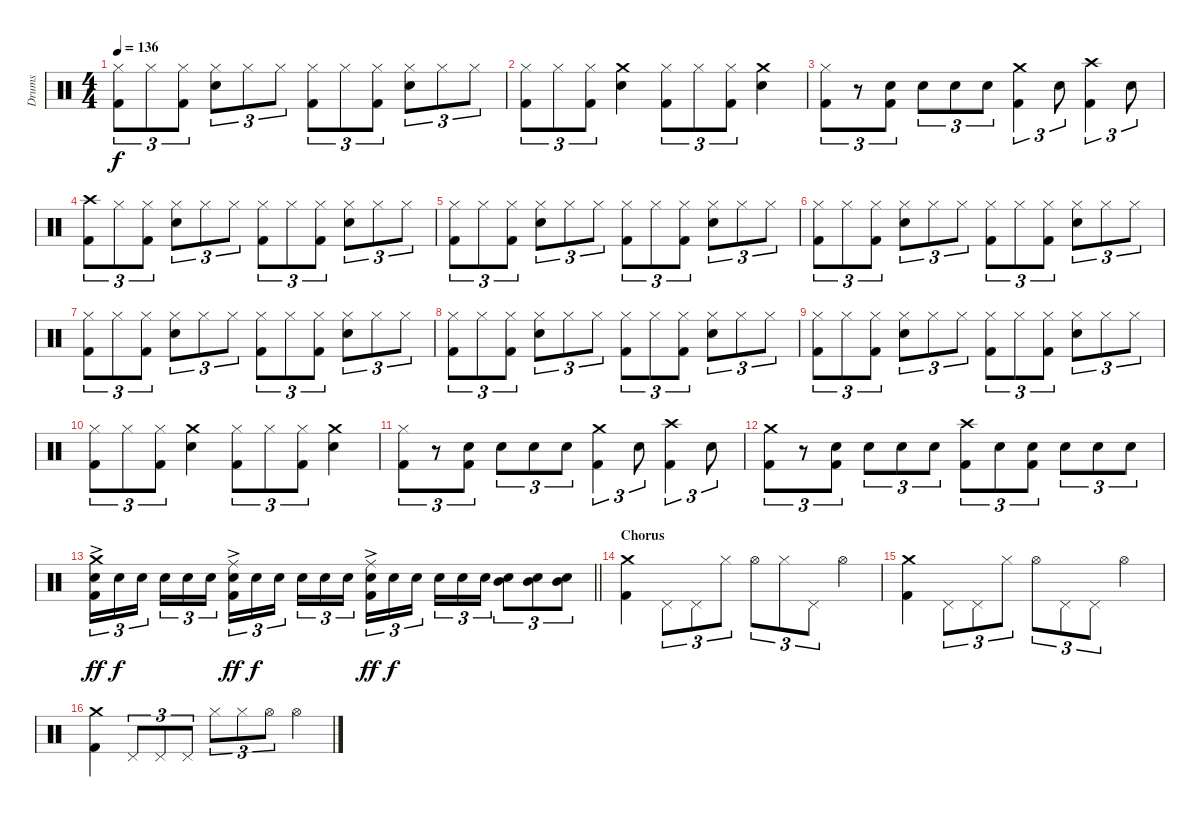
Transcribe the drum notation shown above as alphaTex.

\track ("Drums" "Drums") {instrument percussion}
\staff {score}
\articulation defaults
\ts (4 4)
\tempo 136
\clef neutral
\ks c
("Hi-Hat (closed)" "Kick (hit) 2").8{tu (3 2) dy f} "Hi-Hat (closed)".8{tu (3 2)} ("Hi-Hat (closed)" "Kick (hit) 2").8{tu (3 2)} ("Hi-Hat (closed)" "Snare (hit) 2").8{tu (3 2)} "Hi-Hat (closed)".8{tu (3 2)} "Hi-Hat (closed)".8{tu (3 2)} ("Hi-Hat (closed)" "Kick (hit) 2").8{tu (3 2)} "Hi-Hat (closed)".8{tu (3 2)} ("Hi-Hat (closed)" "Kick (hit) 2").8{tu (3 2)} ("Hi-Hat (closed)" "Snare (hit) 2").8{tu (3 2)} "Hi-Hat (closed)".8{tu (3 2)} "Hi-Hat (closed)".8{tu (3 2)} |
("Hi-Hat (closed)" "Kick (hit) 2").8{tu (3 2)} "Hi-Hat (closed)".8{tu (3 2)} ("Hi-Hat (closed)" "Kick (hit) 2").8{tu (3 2)} ("Crash medium (hit)" "Snare (hit) 2").4 ("Hi-Hat (closed)" "Kick (hit) 2").8{tu (3 2)} "Hi-Hat (closed)".8{tu (3 2)} ("Hi-Hat (closed)" "Kick (hit) 2").8{tu (3 2)} ("Crash medium (hit)" "Snare (hit) 2").4 |
("Hi-Hat (closed)" "Kick (hit) 2").8{tu (3 2)} r.8{tu (3 2)} ("Snare (hit) 2" "Kick (hit) 2").8{tu (3 2)} "Snare (hit) 2".8{tu (3 2)} "Snare (hit) 2".8{tu (3 2)} "Snare (hit) 2".8{tu (3 2)} ("Crash medium (hit)" "Kick (hit) 2").4{tu (3 2)} "Snare (hit) 2".8{tu (3 2)} ("Crash high (hit)" "Kick (hit) 2").4{tu (3 2)} "Snare (hit) 2".8{tu (3 2)} |
("Crash high (hit)" "Kick (hit) 2").8{tu (3 2)} "Hi-Hat (closed)".8{tu (3 2)} ("Hi-Hat (closed)" "Kick (hit) 2").8{tu (3 2)} ("Hi-Hat (closed)" "Snare (hit) 2").8{tu (3 2)} "Hi-Hat (closed)".8{tu (3 2)} "Hi-Hat (closed)".8{tu (3 2)} ("Hi-Hat (closed)" "Kick (hit) 2").8{tu (3 2)} "Hi-Hat (closed)".8{tu (3 2)} ("Hi-Hat (closed)" "Kick (hit) 2").8{tu (3 2)} ("Hi-Hat (closed)" "Snare (hit) 2").8{tu (3 2)} "Hi-Hat (closed)".8{tu (3 2)} "Hi-Hat (closed)".8{tu (3 2)} |
("Hi-Hat (closed)" "Kick (hit) 2").8{tu (3 2)} "Hi-Hat (closed)".8{tu (3 2)} ("Hi-Hat (closed)" "Kick (hit) 2").8{tu (3 2)} ("Hi-Hat (closed)" "Snare (hit) 2").8{tu (3 2)} "Hi-Hat (closed)".8{tu (3 2)} "Hi-Hat (closed)".8{tu (3 2)} ("Hi-Hat (closed)" "Kick (hit) 2").8{tu (3 2)} "Hi-Hat (closed)".8{tu (3 2)} ("Hi-Hat (closed)" "Kick (hit) 2").8{tu (3 2)} ("Hi-Hat (closed)" "Snare (hit) 2").8{tu (3 2)} "Hi-Hat (closed)".8{tu (3 2)} "Hi-Hat (closed)".8{tu (3 2)} |
("Hi-Hat (closed)" "Kick (hit) 2").8{tu (3 2)} "Hi-Hat (closed)".8{tu (3 2)} ("Hi-Hat (closed)" "Kick (hit) 2").8{tu (3 2)} ("Hi-Hat (closed)" "Snare (hit) 2").8{tu (3 2)} "Hi-Hat (closed)".8{tu (3 2)} "Hi-Hat (closed)".8{tu (3 2)} ("Hi-Hat (closed)" "Kick (hit) 2").8{tu (3 2)} "Hi-Hat (closed)".8{tu (3 2)} ("Hi-Hat (closed)" "Kick (hit) 2").8{tu (3 2)} ("Hi-Hat (closed)" "Snare (hit) 2").8{tu (3 2)} "Hi-Hat (closed)".8{tu (3 2)} "Hi-Hat (closed)".8{tu (3 2)} |
("Hi-Hat (closed)" "Kick (hit) 2").8{tu (3 2)} "Hi-Hat (closed)".8{tu (3 2)} ("Hi-Hat (closed)" "Kick (hit) 2").8{tu (3 2)} ("Hi-Hat (closed)" "Snare (hit) 2").8{tu (3 2)} "Hi-Hat (closed)".8{tu (3 2)} "Hi-Hat (closed)".8{tu (3 2)} ("Hi-Hat (closed)" "Kick (hit) 2").8{tu (3 2)} "Hi-Hat (closed)".8{tu (3 2)} ("Hi-Hat (closed)" "Kick (hit) 2").8{tu (3 2)} ("Hi-Hat (closed)" "Snare (hit) 2").8{tu (3 2)} "Hi-Hat (closed)".8{tu (3 2)} "Hi-Hat (closed)".8{tu (3 2)} |
("Hi-Hat (closed)" "Kick (hit) 2").8{tu (3 2)} "Hi-Hat (closed)".8{tu (3 2)} ("Hi-Hat (closed)" "Kick (hit) 2").8{tu (3 2)} ("Hi-Hat (closed)" "Snare (hit) 2").8{tu (3 2)} "Hi-Hat (closed)".8{tu (3 2)} "Hi-Hat (closed)".8{tu (3 2)} ("Hi-Hat (closed)" "Kick (hit) 2").8{tu (3 2)} "Hi-Hat (closed)".8{tu (3 2)} ("Hi-Hat (closed)" "Kick (hit) 2").8{tu (3 2)} ("Hi-Hat (closed)" "Snare (hit) 2").8{tu (3 2)} "Hi-Hat (closed)".8{tu (3 2)} "Hi-Hat (closed)".8{tu (3 2)} |
("Hi-Hat (closed)" "Kick (hit) 2").8{tu (3 2)} "Hi-Hat (closed)".8{tu (3 2)} ("Hi-Hat (closed)" "Kick (hit) 2").8{tu (3 2)} ("Hi-Hat (closed)" "Snare (hit) 2").8{tu (3 2)} "Hi-Hat (closed)".8{tu (3 2)} "Hi-Hat (closed)".8{tu (3 2)} ("Hi-Hat (closed)" "Kick (hit) 2").8{tu (3 2)} "Hi-Hat (closed)".8{tu (3 2)} ("Hi-Hat (closed)" "Kick (hit) 2").8{tu (3 2)} ("Hi-Hat (closed)" "Snare (hit) 2").8{tu (3 2)} "Hi-Hat (closed)".8{tu (3 2)} "Hi-Hat (closed)".8{tu (3 2)} |
("Hi-Hat (closed)" "Kick (hit) 2").8{tu (3 2)} "Hi-Hat (closed)".8{tu (3 2)} ("Hi-Hat (closed)" "Kick (hit) 2").8{tu (3 2)} ("Crash medium (hit)" "Snare (hit) 2").4 ("Hi-Hat (closed)" "Kick (hit) 2").8{tu (3 2)} "Hi-Hat (closed)".8{tu (3 2)} ("Hi-Hat (closed)" "Kick (hit) 2").8{tu (3 2)} ("Crash medium (hit)" "Snare (hit) 2").4 |
("Hi-Hat (closed)" "Kick (hit) 2").8{tu (3 2)} r.8{tu (3 2)} ("Snare (hit) 2" "Kick (hit) 2").8{tu (3 2)} "Snare (hit) 2".8{tu (3 2)} "Snare (hit) 2".8{tu (3 2)} "Snare (hit) 2".8{tu (3 2)} ("Crash medium (hit)" "Kick (hit) 2").4{tu (3 2)} "Snare (hit) 2".8{tu (3 2)} ("Crash high (hit)" "Kick (hit) 2").4{tu (3 2)} "Snare (hit) 2".8{tu (3 2)} |
("Crash medium (hit)" "Kick (hit) 2").8{tu (3 2)} r.8{tu (3 2)} ("Snare (hit) 2" "Kick (hit) 2").8{tu (3 2)} "Snare (hit) 2".8{tu (3 2)} "Snare (hit) 2".8{tu (3 2)} "Snare (hit) 2".8{tu (3 2)} ("Crash high (hit)" "Kick (hit) 2").8{tu (3 2)} "Snare (hit) 2".8{tu (3 2)} ("Snare (hit) 2" "Kick (hit) 2").8{tu (3 2)} "Snare (hit) 2".8{tu (3 2)} "Snare (hit) 2".8{tu (3 2)} "Snare (hit) 2".8{tu (3 2)} |
\barLineRight lightlight
("Crash medium (hit)" "Snare (hit) 2"{ac} "Kick (hit) 2").16{tu (3 2) dy ff} "Snare (hit) 2".16{tu (3 2) dy f} "Snare (hit) 2".16{tu (3 2)} "Snare (hit) 2".16{tu (3 2)} "Snare (hit) 2".16{tu (3 2)} "Snare (hit) 2".16{tu (3 2)} ("Ride (middle)" "Snare (hit) 2"{ac} "Kick (hit) 2").16{tu (3 2) dy ff} "Snare (hit) 2".16{tu (3 2) dy f} "Snare (hit) 2".16{tu (3 2)} "Snare (hit) 2".16{tu (3 2)} "Snare (hit) 2".16{tu (3 2)} "Snare (hit) 2".16{tu (3 2)} ("Ride (middle)" "Snare (hit) 2"{ac} "Kick (hit) 2").16{tu (3 2) dy ff} "Snare (hit) 2".16{tu (3 2) dy f} "Snare (hit) 2".16{tu (3 2)} "Snare (hit) 2".16{tu (3 2)} "Snare (hit) 2".16{tu (3 2)} "Snare (hit) 2".16{tu (3 2)} ("Mid Tom (hit)" "Snare (hit) 2").8{tu (3 2)} ("Mid Tom (hit)" "Snare (hit) 2").8{tu (3 2)} ("Mid Tom (hit)" "Snare (hit) 2").8{tu (3 2)} |
\section ("" "Chorus")
("Crash medium (hit)" "Kick (hit) 2").4 "Pedal Hi-Hat (hit)".8{tu (3 2)} "Pedal Hi-Hat (hit)".8{tu (3 2)} "Hi-Hat (closed)".8{tu (3 2)} "Hi-Hat (open)".8{tu (3 2)} "Hi-Hat (closed)".8{tu (3 2)} "Pedal Hi-Hat (hit)".8{tu (3 2)} "Hi-Hat (open)".4 |
("Crash medium (hit)" "Kick (hit) 2").4 "Pedal Hi-Hat (hit)".8{tu (3 2)} "Pedal Hi-Hat (hit)".8{tu (3 2)} "Hi-Hat (closed)".8{tu (3 2)} "Hi-Hat (open)".8{tu (3 2)} "Pedal Hi-Hat (hit)".8{tu (3 2)} "Pedal Hi-Hat (hit)".8{tu (3 2)} "Hi-Hat (open)".4 |
("Crash medium (hit)" "Kick (hit) 2").4 "Pedal Hi-Hat (hit)".8{tu (3 2)} "Pedal Hi-Hat (hit)".8{tu (3 2)} "Pedal Hi-Hat (hit)".8{tu (3 2)} "Hi-Hat (closed)".8{tu (3 2)} "Hi-Hat (closed)".8{tu (3 2)} "Hi-Hat (open)".8{tu (3 2)} "Hi-Hat (open)".4
